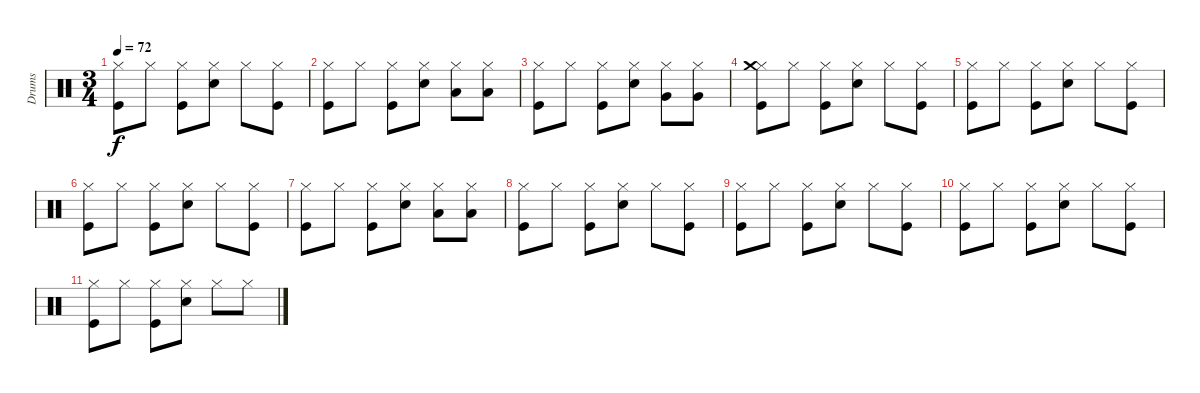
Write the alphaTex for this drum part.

\track ("Drums" "Drums") {instrument percussion}
\staff {score}
\articulation defaults
\ts (3 4)
\tempo 72
\clef neutral
\ks c
("Hi-Hat (closed)" "Kick (hit)").8{dy f} "Hi-Hat (closed)".8 ("Hi-Hat (closed)" "Kick (hit)").8 ("Hi-Hat (closed)" "Snare (hit) 2").8 "Hi-Hat (closed)".8 ("Hi-Hat (closed)" "Kick (hit)").8 |
("Hi-Hat (closed)" "Kick (hit)").8 "Hi-Hat (closed)".8 ("Hi-Hat (closed)" "Kick (hit)").8 ("Hi-Hat (closed)" "Snare (hit) 2").8 ("Hi-Hat (closed)" "Low Tom (hit)").8 ("Hi-Hat (closed)" "Low Tom (hit)").8 |
("Hi-Hat (closed)" "Kick (hit)").8 "Hi-Hat (closed)".8 ("Hi-Hat (closed)" "Kick (hit)").8 ("Hi-Hat (closed)" "Snare (hit) 2").8 ("Hi-Hat (closed)" "Very Low Tom (hit)").8 ("Hi-Hat (closed)" "Very Low Tom (hit)").8 |
("Hi-Hat (closed)" "Crash medium (hit)" "Kick (hit)").8 "Hi-Hat (closed)".8 ("Hi-Hat (closed)" "Kick (hit)").8 ("Hi-Hat (closed)" "Snare (hit) 2").8 "Hi-Hat (closed)".8 ("Hi-Hat (closed)" "Kick (hit)").8 |
("Hi-Hat (closed)" "Kick (hit)").8 "Hi-Hat (closed)".8 ("Hi-Hat (closed)" "Kick (hit)").8 ("Hi-Hat (closed)" "Snare (hit) 2").8 "Hi-Hat (closed)".8 ("Hi-Hat (closed)" "Kick (hit)").8 |
("Hi-Hat (closed)" "Kick (hit)").8 "Hi-Hat (closed)".8 ("Hi-Hat (closed)" "Kick (hit)").8 ("Hi-Hat (closed)" "Snare (hit) 2").8 "Hi-Hat (closed)".8 ("Hi-Hat (closed)" "Kick (hit)").8 |
("Hi-Hat (closed)" "Kick (hit)").8 "Hi-Hat (closed)".8 ("Hi-Hat (closed)" "Kick (hit)").8 ("Hi-Hat (closed)" "Snare (hit) 2").8 ("Hi-Hat (closed)" "Low Tom (hit)").8 ("Hi-Hat (closed)" "Low Tom (hit)").8 |
("Hi-Hat (closed)" "Kick (hit)").8 "Hi-Hat (closed)".8 ("Hi-Hat (closed)" "Kick (hit)").8 ("Hi-Hat (closed)" "Snare (hit) 2").8 "Hi-Hat (closed)".8 ("Hi-Hat (closed)" "Kick (hit)").8 |
("Hi-Hat (closed)" "Kick (hit)").8 "Hi-Hat (closed)".8 ("Hi-Hat (closed)" "Kick (hit)").8 ("Hi-Hat (closed)" "Snare (hit) 2").8 "Hi-Hat (closed)".8 ("Hi-Hat (closed)" "Kick (hit)").8 |
("Hi-Hat (closed)" "Kick (hit)").8 "Hi-Hat (closed)".8 ("Hi-Hat (closed)" "Kick (hit)").8 ("Hi-Hat (closed)" "Snare (hit) 2").8 "Hi-Hat (closed)".8 ("Hi-Hat (closed)" "Kick (hit)").8 |
("Hi-Hat (closed)" "Kick (hit)").8 "Hi-Hat (closed)".8 ("Hi-Hat (closed)" "Kick (hit)").8 ("Hi-Hat (closed)" "Snare (hit) 2").8 "Hi-Hat (closed)".8 "Hi-Hat (closed)".8
